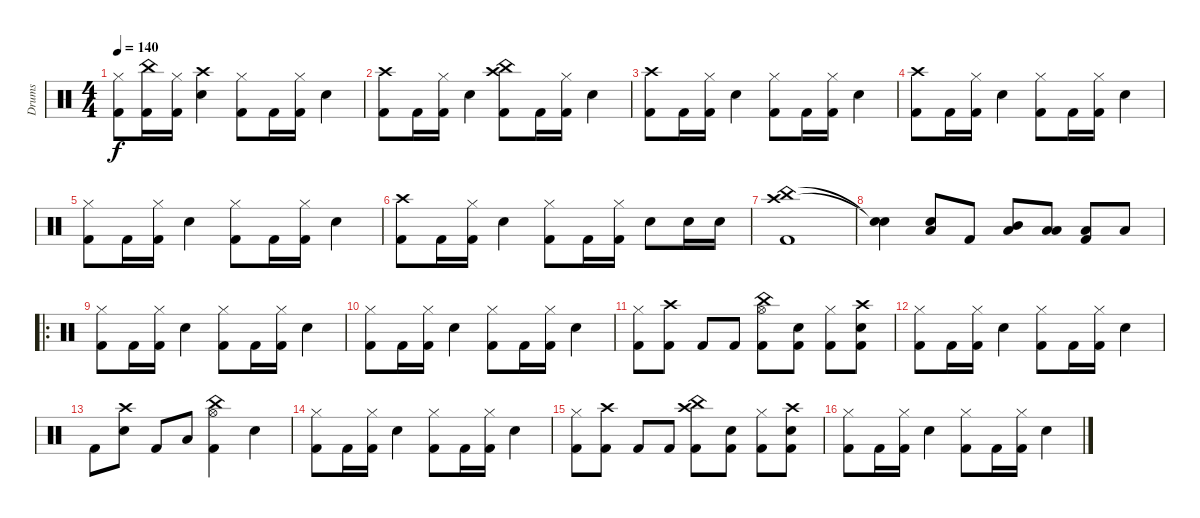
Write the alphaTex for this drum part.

\track ("Drums" "Drums") {instrument percussion}
\staff {score}
\articulation defaults
\ts (4 4)
\tempo 140
\clef neutral
\ks c
("Hi-Hat (closed)" "Kick (hit) 2").8{dy f} ("China (hit)" "Kick (hit) 2").16 ("Hi-Hat (closed)" "Kick (hit) 2").16 ("Crash high (hit)" "Electric Snare (hit)").4 ("Hi-Hat (closed)" "Kick (hit) 2").8 "Kick (hit) 2".16 ("Hi-Hat (closed)" "Kick (hit) 2").16 "Electric Snare (hit)".4 |
("Crash high (hit)" "Kick (hit) 2").8 "Kick (hit) 2".16 ("Hi-Hat (closed)" "Kick (hit) 2").16 "Electric Snare (hit)".4 ("China (hit)" "Crash high (hit)" "Kick (hit) 2").8 "Kick (hit) 2".16 ("Hi-Hat (closed)" "Kick (hit) 2").16 "Electric Snare (hit)".4 |
("Crash high (hit)" "Kick (hit) 2").8 "Kick (hit) 2".16 ("Hi-Hat (closed)" "Kick (hit) 2").16 "Electric Snare (hit)".4 ("Hi-Hat (closed)" "Kick (hit) 2").8 "Kick (hit) 2".16 ("Hi-Hat (closed)" "Kick (hit) 2").16 "Electric Snare (hit)".4 |
("Crash high (hit)" "Kick (hit) 2").8 "Kick (hit) 2".16 ("Hi-Hat (closed)" "Kick (hit) 2").16 "Electric Snare (hit)".4 ("Hi-Hat (closed)" "Kick (hit) 2").8 "Kick (hit) 2".16 ("Hi-Hat (closed)" "Kick (hit) 2").16 "Electric Snare (hit)".4 |
("Hi-Hat (closed)" "Kick (hit) 2").8 "Kick (hit) 2".16 ("Hi-Hat (closed)" "Kick (hit) 2").16 "Electric Snare (hit)".4 ("Hi-Hat (closed)" "Kick (hit) 2").8 "Kick (hit) 2".16 ("Hi-Hat (closed)" "Kick (hit) 2").16 "Electric Snare (hit)".4 |
("Crash high (hit)" "Kick (hit) 2").8 "Kick (hit) 2".16 ("Hi-Hat (closed)" "Kick (hit) 2").16 "Electric Snare (hit)".4 ("Hi-Hat (closed)" "Kick (hit) 2").8 "Kick (hit) 2".16 ("Hi-Hat (closed)" "Kick (hit) 2").16 "Electric Snare (hit)".8 "Electric Snare (hit)".16 "Electric Snare (hit)".16 |
("China (hit)" "Crash high (hit)" "Kick (hit) 2").1 |
("Snare (hit)"{t} "Snare (hit)"{t}).4 ("Low Tom (hit)" "Electric Snare (hit)").8 "Kick (hit) 2".8 ("Mid Tom (hit)" "Low Tom (hit)").8 ("Low Tom (hit)" "Low Floor Tom (hit)").8 ("Low Floor Tom (hit)" "Kick (hit) 2").8 "Low Floor Tom (hit)".8 |
\ro
("Hi-Hat (closed)" "Kick (hit) 2").8 "Kick (hit) 2".16 ("Hi-Hat (closed)" "Kick (hit) 2").16 "Electric Snare (hit)".4 ("Hi-Hat (closed)" "Kick (hit) 2").8 "Kick (hit) 2".16 ("Hi-Hat (closed)" "Kick (hit) 2").16 "Electric Snare (hit)".4 |
("Hi-Hat (closed)" "Kick (hit) 2").8 "Kick (hit) 2".16 ("Hi-Hat (closed)" "Kick (hit) 2").16 "Electric Snare (hit)".4 ("Hi-Hat (closed)" "Kick (hit) 2").8 "Kick (hit) 2".16 ("Hi-Hat (closed)" "Kick (hit) 2").16 "Electric Snare (hit)".4 |
("Hi-Hat (closed)" "Kick (hit) 2").8 ("Crash high (hit)" "Kick (hit) 2").8 "Kick (hit) 2".8 "Kick (hit) 2".8 ("China (hit)" "Hi-Hat (open)" "Kick (hit) 2").8 ("Electric Snare (hit)" "Kick (hit) 2").8 ("Hi-Hat (closed)" "Kick (hit) 2").8 ("Crash high (hit)" "Electric Snare (hit)" "Kick (hit) 2").8 |
("Hi-Hat (closed)" "Kick (hit) 2").8 "Kick (hit) 2".16 ("Hi-Hat (closed)" "Kick (hit) 2").16 "Electric Snare (hit)".4 ("Hi-Hat (closed)" "Kick (hit) 2").8 "Kick (hit) 2".16 ("Hi-Hat (closed)" "Kick (hit) 2").16 "Electric Snare (hit)".4 |
"Kick (hit) 2".8 ("Crash high (hit)" "Electric Snare (hit)").8 "Kick (hit) 2".8 "Low Floor Tom (hit)".8 ("China (hit)" "Hi-Hat (open)" "Kick (hit) 2").4 "Electric Snare (hit)".4 |
("Hi-Hat (closed)" "Kick (hit) 2").8 "Kick (hit) 2".16 ("Hi-Hat (closed)" "Kick (hit) 2").16 "Electric Snare (hit)".4 ("Hi-Hat (closed)" "Kick (hit) 2").8 "Kick (hit) 2".16 ("Hi-Hat (closed)" "Kick (hit) 2").16 "Electric Snare (hit)".4 |
("Hi-Hat (closed)" "Kick (hit) 2").8 ("Crash high (hit)" "Kick (hit) 2").8 "Kick (hit) 2".8 "Kick (hit) 2".8 ("China (hit)" "Crash high (hit)" "Kick (hit) 2").8 ("Electric Snare (hit)" "Kick (hit) 2").8 ("Hi-Hat (closed)" "Kick (hit) 2").8 ("Crash high (hit)" "Electric Snare (hit)" "Kick (hit) 2").8 |
("Hi-Hat (closed)" "Kick (hit) 2").8 "Kick (hit) 2".16 ("Hi-Hat (closed)" "Kick (hit) 2").16 "Electric Snare (hit)".4 ("Hi-Hat (closed)" "Kick (hit) 2").8 "Kick (hit) 2".16 ("Hi-Hat (closed)" "Kick (hit) 2").16 "Electric Snare (hit)".4
